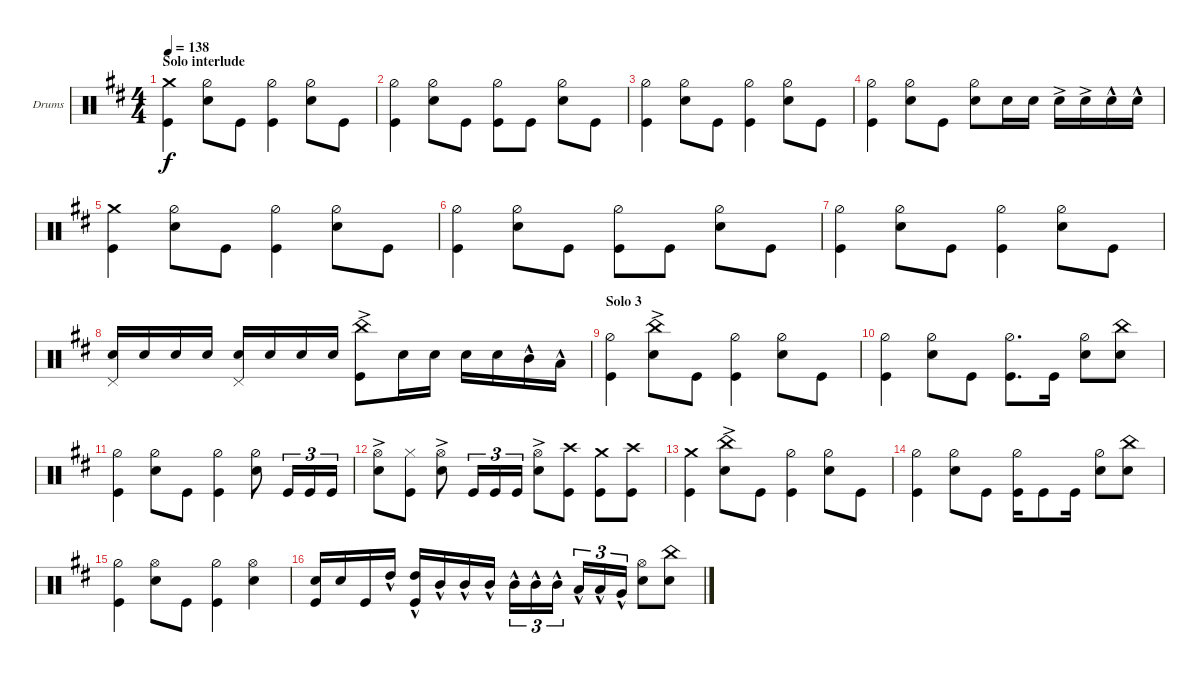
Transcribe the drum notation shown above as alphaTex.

\defaultSystemsLayout 4
\bracketExtendMode groupsimilarinstruments
\firstSystemTrackNameOrientation horizontal
\otherSystemsTrackNameOrientation horizontal
\track ("Drumkit" "Drums") {instrument percussion}
\staff {score}
\articulation defaults
\ts (4 4)
\section ("" "Solo interlude")
\tempo 138
\clef neutral
\ks d
("Kick (hit)" "Crash medium (hit)").4{dy f} ("Snare (hit) 2" "Hi-Hat (half)").8 "Kick (hit)".8 ("Kick (hit)" "Hi-Hat (half)").4 ("Snare (hit) 2" "Hi-Hat (half)").8 "Kick (hit)".8 |
("Kick (hit)" "Hi-Hat (half)").4 ("Snare (hit) 2" "Hi-Hat (half)").8 "Kick (hit)".8 ("Kick (hit)" "Hi-Hat (half)").8 "Kick (hit)".8 ("Snare (hit) 2" "Hi-Hat (half)").8 "Kick (hit)".8 |
("Kick (hit)" "Hi-Hat (half)").4 ("Snare (hit) 2" "Hi-Hat (half)").8 "Kick (hit)".8 ("Kick (hit)" "Hi-Hat (half)").4 ("Snare (hit) 2" "Hi-Hat (half)").8 "Kick (hit)".8 |
("Kick (hit)" "Hi-Hat (half)").4 ("Snare (hit) 2" "Hi-Hat (half)").8 "Kick (hit)".8 ("Snare (hit) 2" "Hi-Hat (half)").8 "Snare (hit) 2".16 "Snare (hit) 2".16 "Snare (hit) 2"{ac}.16 "Snare (hit) 2"{ac}.16 "Snare (hit) 2"{hac}.16 "Snare (hit) 2"{hac}.16 |
("Kick (hit)" "Crash medium (hit)").4 ("Snare (hit) 2" "Hi-Hat (half)").8 "Kick (hit)".8 ("Kick (hit)" "Hi-Hat (half)").4 ("Snare (hit) 2" "Hi-Hat (half)").8 "Kick (hit)".8 |
("Kick (hit)" "Hi-Hat (half)").4 ("Snare (hit) 2" "Hi-Hat (half)").8 "Kick (hit)".8 ("Kick (hit)" "Hi-Hat (half)").8 "Kick (hit)".8 ("Snare (hit) 2" "Hi-Hat (half)").8 "Kick (hit)".8 |
("Kick (hit)" "Hi-Hat (half)").4 ("Snare (hit) 2" "Hi-Hat (half)").8 "Kick (hit)".8 ("Kick (hit)" "Hi-Hat (half)").4 ("Snare (hit) 2" "Hi-Hat (half)").8 "Kick (hit)".8 |
("Snare (hit) 2" "Pedal Hi-Hat (hit)").16 "Snare (hit) 2".16 "Snare (hit) 2".16 "Snare (hit) 2".16 ("Snare (hit) 2" "Pedal Hi-Hat (hit)").16 "Snare (hit) 2".16 "Snare (hit) 2".16 "Snare (hit) 2".16 ("Kick (hit)" "China (hit)"{ac}).8 "Snare (hit) 2".16 "Snare (hit) 2".16 "Snare (hit) 2".16 "Snare (hit) 2".16 "Mid Tom (hit)"{hac}.16 "Low Tom (hit)"{hac}.16 |
\section ("" "Solo 3")
("Kick (hit)" "Hi-Hat (half)").4 ("Snare (hit) 2" "China (hit)"{ac}).8 "Kick (hit)".8 ("Kick (hit)" "Hi-Hat (half)").4 ("Snare (hit) 2" "Hi-Hat (half)").8 "Kick (hit)".8 |
("Kick (hit)" "Hi-Hat (half)").4 ("Snare (hit) 2" "Hi-Hat (half)").8 "Kick (hit)".8 ("Kick (hit)" "Hi-Hat (half)").8{d} "Kick (hit)".16 ("Snare (hit) 2" "Hi-Hat (half)").8 ("Snare (hit) 2" "China (hit)").8 |
("Kick (hit)" "Hi-Hat (half)").4 ("Snare (hit) 2" "Hi-Hat (half)").8 "Kick (hit)".8 ("Kick (hit)" "Hi-Hat (half)").4 ("Snare (hit) 2" "Hi-Hat (half)").8 "Kick (hit)".16{tu (3 2)} "Kick (hit)".16{tu (3 2)} "Kick (hit)".16{tu (3 2)} |
("Snare (hit) 2"{ac} "Hi-Hat (open)").8 ("Kick (hit)" "Hi-Hat (closed)").8 ("Snare (hit) 2"{ac} "Hi-Hat (open)").8 "Kick (hit)".16{tu (3 2)} "Kick (hit)".16{tu (3 2)} "Kick (hit)".16{tu (3 2)} ("Snare (hit) 2"{ac} "Hi-Hat (open)").8 ("Kick (hit)" "Crash high (hit)").8 ("Kick (hit)" "Crash medium (hit)").8 ("Kick (hit)" "Crash high (hit)").8 |
("Kick (hit)" "Crash medium (hit)").4 ("Snare (hit) 2" "China (hit)"{ac}).8 "Kick (hit)".8 ("Kick (hit)" "Hi-Hat (half)").4 ("Snare (hit) 2" "Hi-Hat (half)").8 "Kick (hit)".8 |
("Kick (hit)" "Hi-Hat (half)").4 ("Snare (hit) 2" "Hi-Hat (half)").8 "Kick (hit)".8 ("Kick (hit)" "Hi-Hat (half)").16 "Kick (hit)".8 "Kick (hit)".16 ("Snare (hit) 2" "Hi-Hat (half)").8 ("Snare (hit) 2" "China (hit)").8 |
("Kick (hit)" "Hi-Hat (half)").4 ("Snare (hit) 2" "Hi-Hat (open)").8 "Kick (hit)".8 ("Kick (hit)" "Hi-Hat (half)").4 ("Snare (hit) 2" "Hi-Hat (open)").4 |
("Snare (hit) 2" "Kick (hit)").16 "Snare (hit) 2".16 "Kick (hit)".16 "High Tom (hit)"{hac}.16 ("Kick (hit)" "High Tom (hit)"{hac}).16 "Mid Tom (hit)"{hac}.16 "Mid Tom (hit)"{hac}.16 "Mid Tom (hit)"{hac}.16 "Mid Tom (hit)"{hac}.16{tu (3 2)} "Mid Tom (hit)"{hac}.16{tu (3 2)} "Mid Tom (hit)"{hac}.16{tu (3 2)} "Low Tom (hit)"{hac}.16{tu (3 2)} "Low Tom (hit)"{hac}.16{tu (3 2)} "Very Low Tom (hit)"{hac}.16{tu (3 2)} ("Snare (hit) 2" "Hi-Hat (open)").8 ("Snare (hit) 2" "China (hit)").8
